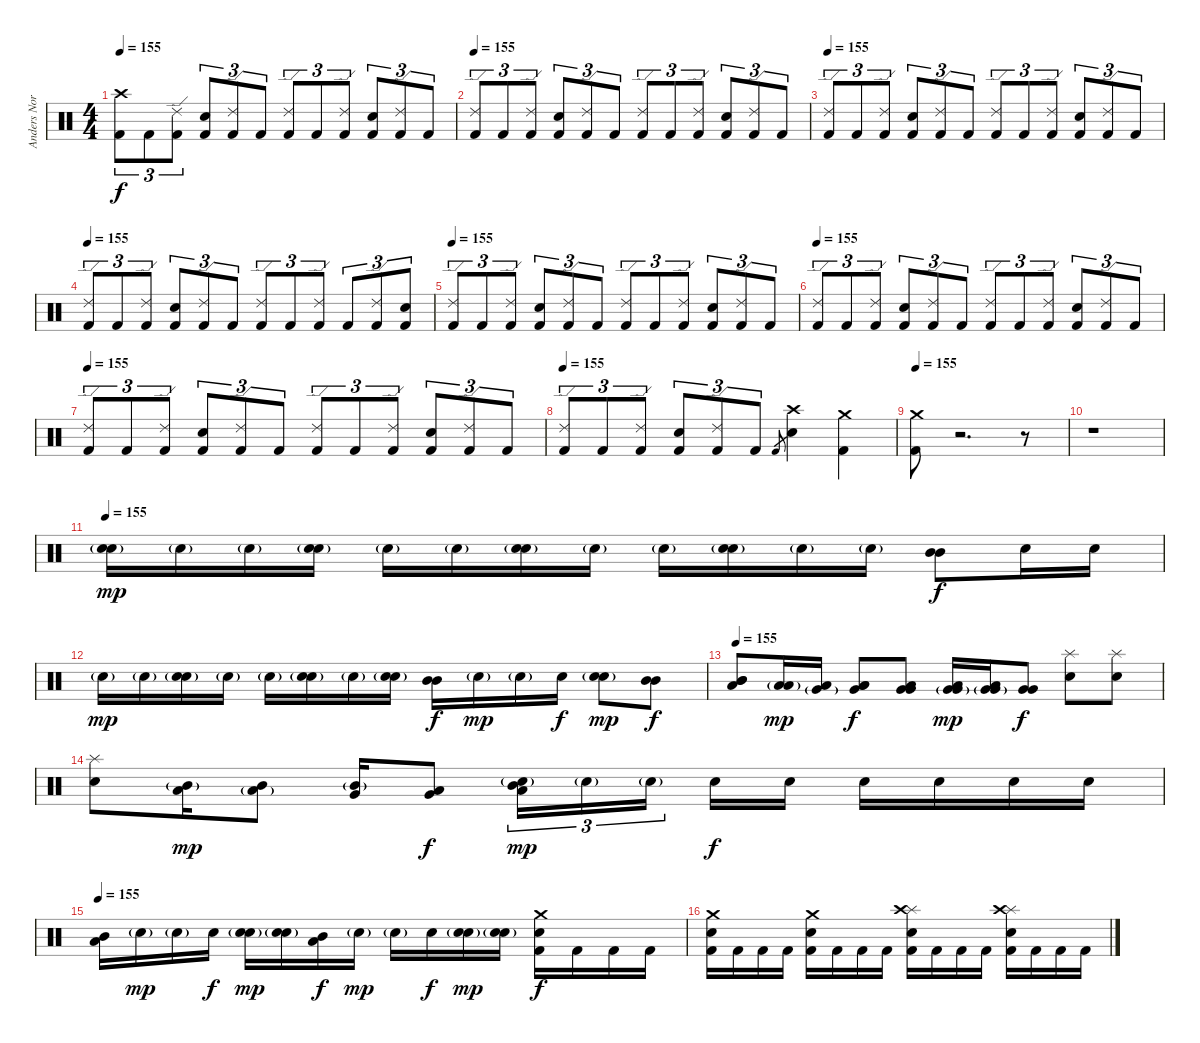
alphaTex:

\track ("Anders Nordin" "Anders Nor") {instrument percussion}
\staff {score}
\articulation defaults
\ts (4 4)
\tempo 155
\clef neutral
\ks c
("Kick (hit) 2" "Crash high (hit)").8{tu (3 2) dy f} "Kick (hit) 2".8{tu (3 2)} ("Kick (hit) 2" "Ride (edge) 2").8{tu (3 2)} ("Kick (hit) 2" "Electric Snare (hit)").8{tu (3 2)} ("Kick (hit) 2" "Ride (edge) 2").8{tu (3 2)} "Kick (hit) 2".8{tu (3 2)} ("Kick (hit) 2" "Ride (edge) 2").8{tu (3 2)} "Kick (hit) 2".8{tu (3 2)} ("Kick (hit) 2" "Ride (edge) 2").8{tu (3 2)} ("Kick (hit) 2" "Electric Snare (hit)").8{tu (3 2)} ("Kick (hit) 2" "Ride (edge) 2").8{tu (3 2)} "Kick (hit) 2".8{tu (3 2)} |
\tempo 155
("Kick (hit) 2" "Ride (edge) 2").8{tu (3 2)} "Kick (hit) 2".8{tu (3 2)} ("Kick (hit) 2" "Ride (edge) 2").8{tu (3 2)} ("Kick (hit) 2" "Electric Snare (hit)").8{tu (3 2)} ("Kick (hit) 2" "Ride (edge) 2").8{tu (3 2)} "Kick (hit) 2".8{tu (3 2)} ("Kick (hit) 2" "Ride (edge) 2").8{tu (3 2)} "Kick (hit) 2".8{tu (3 2)} ("Kick (hit) 2" "Ride (edge) 2").8{tu (3 2)} ("Kick (hit) 2" "Electric Snare (hit)").8{tu (3 2)} ("Kick (hit) 2" "Ride (edge) 2").8{tu (3 2)} "Kick (hit) 2".8{tu (3 2)} |
\tempo 155
("Kick (hit) 2" "Ride (edge) 2").8{tu (3 2)} "Kick (hit) 2".8{tu (3 2)} ("Kick (hit) 2" "Ride (edge) 2").8{tu (3 2)} ("Kick (hit) 2" "Electric Snare (hit)").8{tu (3 2)} ("Kick (hit) 2" "Ride (edge) 2").8{tu (3 2)} "Kick (hit) 2".8{tu (3 2)} ("Kick (hit) 2" "Ride (edge) 2").8{tu (3 2)} "Kick (hit) 2".8{tu (3 2)} ("Kick (hit) 2" "Ride (edge) 2").8{tu (3 2)} ("Kick (hit) 2" "Electric Snare (hit)").8{tu (3 2)} ("Kick (hit) 2" "Ride (edge) 2").8{tu (3 2)} "Kick (hit) 2".8{tu (3 2)} |
\tempo 155
("Kick (hit) 2" "Ride (edge) 2").8{tu (3 2)} "Kick (hit) 2".8{tu (3 2)} ("Kick (hit) 2" "Ride (edge) 2").8{tu (3 2)} ("Kick (hit) 2" "Electric Snare (hit)").8{tu (3 2)} ("Kick (hit) 2" "Ride (edge) 2").8{tu (3 2)} "Kick (hit) 2".8{tu (3 2)} ("Kick (hit) 2" "Ride (edge) 2").8{tu (3 2)} "Kick (hit) 2".8{tu (3 2)} ("Kick (hit) 2" "Ride (edge) 2").8{tu (3 2)} "Kick (hit) 2".8{tu (3 2)} ("Kick (hit) 2" "Ride (edge) 2").8{tu (3 2)} ("Kick (hit) 2" "Electric Snare (hit)").8{tu (3 2)} |
\tempo 155
("Kick (hit) 2" "Ride (edge) 2").8{tu (3 2)} "Kick (hit) 2".8{tu (3 2)} ("Kick (hit) 2" "Ride (edge) 2").8{tu (3 2)} ("Kick (hit) 2" "Electric Snare (hit)").8{tu (3 2)} ("Kick (hit) 2" "Ride (edge) 2").8{tu (3 2)} "Kick (hit) 2".8{tu (3 2)} ("Kick (hit) 2" "Ride (edge) 2").8{tu (3 2)} "Kick (hit) 2".8{tu (3 2)} ("Kick (hit) 2" "Ride (edge) 2").8{tu (3 2)} ("Kick (hit) 2" "Electric Snare (hit)").8{tu (3 2)} ("Kick (hit) 2" "Ride (edge) 2").8{tu (3 2)} "Kick (hit) 2".8{tu (3 2)} |
\tempo 155
("Kick (hit) 2" "Ride (edge) 2").8{tu (3 2)} "Kick (hit) 2".8{tu (3 2)} ("Kick (hit) 2" "Ride (edge) 2").8{tu (3 2)} ("Kick (hit) 2" "Electric Snare (hit)").8{tu (3 2)} ("Kick (hit) 2" "Ride (edge) 2").8{tu (3 2)} "Kick (hit) 2".8{tu (3 2)} ("Kick (hit) 2" "Ride (edge) 2").8{tu (3 2)} "Kick (hit) 2".8{tu (3 2)} ("Kick (hit) 2" "Ride (edge) 2").8{tu (3 2)} ("Kick (hit) 2" "Electric Snare (hit)").8{tu (3 2)} ("Kick (hit) 2" "Ride (edge) 2").8{tu (3 2)} "Kick (hit) 2".8{tu (3 2)} |
\tempo 155
("Kick (hit) 2" "Ride (edge) 2").8{tu (3 2)} "Kick (hit) 2".8{tu (3 2)} ("Kick (hit) 2" "Ride (edge) 2").8{tu (3 2)} ("Kick (hit) 2" "Electric Snare (hit)").8{tu (3 2)} ("Kick (hit) 2" "Ride (edge) 2").8{tu (3 2)} "Kick (hit) 2".8{tu (3 2)} ("Kick (hit) 2" "Ride (edge) 2").8{tu (3 2)} "Kick (hit) 2".8{tu (3 2)} ("Kick (hit) 2" "Ride (edge) 2").8{tu (3 2)} ("Kick (hit) 2" "Electric Snare (hit)").8{tu (3 2)} ("Kick (hit) 2" "Ride (edge) 2").8{tu (3 2)} "Kick (hit) 2".8{tu (3 2)} |
\tempo 155
("Kick (hit) 2" "Ride (edge) 2").8{tu (3 2)} "Kick (hit) 2".8{tu (3 2)} ("Kick (hit) 2" "Ride (edge) 2").8{tu (3 2)} ("Kick (hit) 2" "Electric Snare (hit)").8{tu (3 2)} ("Kick (hit) 2" "Ride (edge) 2").8{tu (3 2)} "Kick (hit) 2".8{tu (3 2)} "Kick (hit) 2".8{gr} ("Electric Snare (hit)" "Crash high (hit)").4 ("Kick (hit) 2" "Crash medium (hit)").4 |
\tempo 155
("Kick (hit) 2" "Crash medium (hit)").8 r.2{d} r.8 |
r.1 |
\tempo 155
("Electric Snare (hit)" "Electric Snare (hit)"{g}).16{dy mp volume 13} "Electric Snare (hit)"{g}.16 "Electric Snare (hit)"{g}.16 ("Electric Snare (hit)" "Electric Snare (hit)"{g}).16 "Electric Snare (hit)"{g}.16 "Electric Snare (hit)"{g}.16 ("Electric Snare (hit)" "Electric Snare (hit)"{g}).16 "Electric Snare (hit)"{g}.16 "Electric Snare (hit)"{g}.16 ("Electric Snare (hit)" "Electric Snare (hit)"{g}).16 "Electric Snare (hit)"{g}.16 "Electric Snare (hit)"{g}.16 ("Mid Tom (hit)" "Mid Tom (hit)").8{dy f} "Electric Snare (hit)".16 "Electric Snare (hit)".16 |
"Electric Snare (hit)"{g}.16{dy mp} "Electric Snare (hit)"{g}.16 ("Electric Snare (hit)" "Electric Snare (hit)"{g}).16 "Electric Snare (hit)"{g}.16 "Electric Snare (hit)"{g}.16 ("Electric Snare (hit)" "Electric Snare (hit)"{g}).16 "Electric Snare (hit)"{g}.16 ("Electric Snare (hit)" "Electric Snare (hit)"{g}).16 ("Mid Tom (hit)" "Mid Tom (hit)").16{dy f} "Electric Snare (hit)"{g}.16{dy mp} "Electric Snare (hit)"{g}.16 "Electric Snare (hit)".16{dy f} ("Electric Snare (hit)" "Electric Snare (hit)"{g}).8{dy mp} ("Mid Tom (hit)" "Mid Tom (hit)").8{dy f} |
\tempo 155
("Mid Tom (hit)" "Mid Tom (hit)" "Low Tom (hit)").8 ("Low Tom (hit)" "Low Tom (hit)"{g}).16{dy mp} ("Low Tom (hit)" "Very Low Tom (hit)"{g}).16 ("Low Tom (hit)" "Low Tom (hit)" "Very Low Tom (hit)").8{dy f} ("Very Low Tom (hit)" "Very Low Tom (hit)" "Low Floor Tom (hit)").8 ("Very Low Tom (hit)" "Very Low Tom (hit)"{g} "Low Floor Tom (hit)").16{dy mp} ("Very Low Tom (hit)" "Very Low Tom (hit)"{g} "Low Floor Tom (hit)").16 ("Very Low Tom (hit)" "Very Low Tom (hit)").8{dy f} ("Electric Snare (hit)" "Splash (hit)").8 ("Electric Snare (hit)" "Splash (hit)").8 |
("Electric Snare (hit)" "Splash (hit)").8 ("Low Tom (hit)" "Mid Tom (hit)"{g}).16{dy mp} ("Mid Tom (hit)" "Low Tom (hit)"{g}).8 ("Mid Tom (hit)"{g} "Very Low Tom (hit)").16 ("Low Tom (hit)" "Very Low Tom (hit)").8{dy f} ("Electric Snare (hit)"{g} "Mid Tom (hit)" "Low Tom (hit)").16{tu (3 2) dy mp} "Electric Snare (hit)"{g}.16{tu (3 2)} "Electric Snare (hit)"{g}.16{tu (3 2)} "Electric Snare (hit)".16{dy f} "Electric Snare (hit)".16 "Electric Snare (hit)".16 "Electric Snare (hit)".16 "Electric Snare (hit)".16 "Electric Snare (hit)".16 |
\tempo 155
("Mid Tom (hit)" "Low Tom (hit)").16 "Electric Snare (hit)"{g}.16{dy mp} "Electric Snare (hit)"{g}.16 "Electric Snare (hit)".16{dy f} ("Electric Snare (hit)" "Electric Snare (hit)"{g}).16{dy mp} ("Electric Snare (hit)" "Electric Snare (hit)"{g}).16 ("Mid Tom (hit)" "Low Tom (hit)").16{dy f} "Electric Snare (hit)"{g}.16{dy mp} "Electric Snare (hit)"{g}.16 "Electric Snare (hit)".16{dy f} ("Electric Snare (hit)" "Electric Snare (hit)"{g}).16{dy mp} ("Electric Snare (hit)" "Electric Snare (hit)"{g}).16 ("Kick (hit) 2" "Electric Snare (hit)" "Crash medium (hit)").16{dy f} "Kick (hit) 2".16 "Kick (hit) 2".16 "Kick (hit) 2".16 |
("Kick (hit) 2" "Electric Snare (hit)" "Crash medium (hit)").16 "Kick (hit) 2".16 "Kick (hit) 2".16 "Kick (hit) 2".16 ("Kick (hit) 2" "Electric Snare (hit)" "Crash medium (hit)").16 "Kick (hit) 2".16 "Kick (hit) 2".16 "Kick (hit) 2".16 ("Kick (hit) 2" "Electric Snare (hit)" "Splash (hit)" "Crash high (hit)").16 "Kick (hit) 2".16 "Kick (hit) 2".16 "Kick (hit) 2".16 ("Kick (hit) 2" "Electric Snare (hit)" "Splash (hit)" "Crash high (hit)").16 "Kick (hit) 2".16 "Kick (hit) 2".16 "Kick (hit) 2".16
